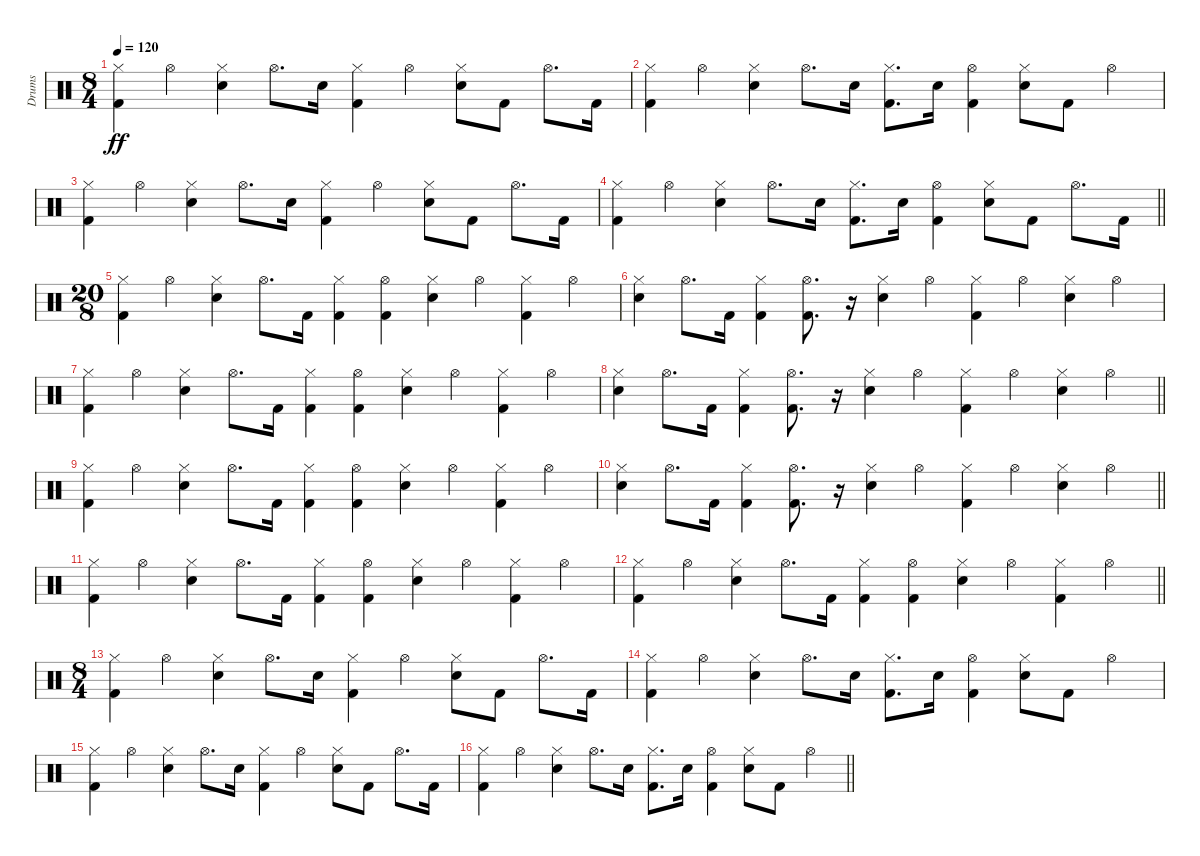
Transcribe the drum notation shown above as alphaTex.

\track ("Drums" "Drums") {instrument percussion}
\staff {score}
\articulation defaults
\ts (8 4)
\section ("" "")
\tempo 120
\clef neutral
\ks c
("Hi-Hat (closed)" "Kick (hit) 2").4{dy ff} "Hi-Hat (open)".4 ("Hi-Hat (closed)" "Electric Snare (hit)").4 "Hi-Hat (open)".8{d} "Electric Snare (hit)".16 ("Hi-Hat (closed)" "Kick (hit) 2").4 "Hi-Hat (open)".4 ("Hi-Hat (closed)" "Electric Snare (hit)").8 "Kick (hit) 2".8 "Hi-Hat (open)".8{d} "Kick (hit) 2".16 |
("Hi-Hat (closed)" "Kick (hit) 2").4 "Hi-Hat (open)".4 ("Hi-Hat (closed)" "Electric Snare (hit)").4 "Hi-Hat (open)".8{d} "Electric Snare (hit)".16 ("Hi-Hat (closed)" "Kick (hit) 2").8{d} "Electric Snare (hit)".16 ("Hi-Hat (open)" "Kick (hit) 2").4 ("Hi-Hat (closed)" "Electric Snare (hit)").8 "Kick (hit) 2".8 "Hi-Hat (open)".4 |
("Hi-Hat (closed)" "Kick (hit) 2").4 "Hi-Hat (open)".4 ("Hi-Hat (closed)" "Electric Snare (hit)").4 "Hi-Hat (open)".8{d} "Electric Snare (hit)".16 ("Hi-Hat (closed)" "Kick (hit) 2").4 "Hi-Hat (open)".4 ("Hi-Hat (closed)" "Electric Snare (hit)").8 "Kick (hit) 2".8 "Hi-Hat (open)".8{d} "Kick (hit) 2".16 |
\barLineRight lightlight
("Hi-Hat (closed)" "Kick (hit) 2").4 "Hi-Hat (open)".4 ("Hi-Hat (closed)" "Electric Snare (hit)").4 "Hi-Hat (open)".8{d} "Electric Snare (hit)".16 ("Hi-Hat (closed)" "Kick (hit) 2").8{d} "Electric Snare (hit)".16 ("Hi-Hat (open)" "Kick (hit) 2").4 ("Hi-Hat (closed)" "Electric Snare (hit)").8 "Kick (hit) 2".8 "Hi-Hat (open)".8{d} "Kick (hit) 2".16 |
\ts (20 8)
\section ("" "")
("Hi-Hat (closed)" "Kick (hit) 2").4 "Hi-Hat (open)".4 ("Hi-Hat (closed)" "Electric Snare (hit)").4 "Hi-Hat (open)".8{d} "Kick (hit) 2".16 ("Hi-Hat (closed)" "Kick (hit) 2").4 ("Hi-Hat (open)" "Kick (hit) 2").4 ("Hi-Hat (closed)" "Electric Snare (hit)").4 "Hi-Hat (open)".4 ("Hi-Hat (closed)" "Kick (hit) 2").4 "Hi-Hat (open)".4 |
("Hi-Hat (closed)" "Electric Snare (hit)").4 "Hi-Hat (open)".8{d} "Kick (hit) 2".16 ("Hi-Hat (closed)" "Kick (hit) 2").4 ("Hi-Hat (open)" "Kick (hit) 2").8{d} r.16 ("Hi-Hat (closed)" "Electric Snare (hit)").4 "Hi-Hat (open)".4 ("Hi-Hat (closed)" "Kick (hit) 2").4 "Hi-Hat (open)".4 ("Hi-Hat (closed)" "Electric Snare (hit)").4 "Hi-Hat (open)".4 |
("Hi-Hat (closed)" "Kick (hit) 2").4 "Hi-Hat (open)".4 ("Hi-Hat (closed)" "Electric Snare (hit)").4 "Hi-Hat (open)".8{d} "Kick (hit) 2".16 ("Hi-Hat (closed)" "Kick (hit) 2").4 ("Hi-Hat (open)" "Kick (hit) 2").4 ("Hi-Hat (closed)" "Electric Snare (hit)").4 "Hi-Hat (open)".4 ("Hi-Hat (closed)" "Kick (hit) 2").4 "Hi-Hat (open)".4 |
\barLineRight lightlight
("Hi-Hat (closed)" "Electric Snare (hit)").4 "Hi-Hat (open)".8{d} "Kick (hit) 2".16 ("Hi-Hat (closed)" "Kick (hit) 2").4 ("Hi-Hat (open)" "Kick (hit) 2").8{d} r.16 ("Hi-Hat (closed)" "Electric Snare (hit)").4 "Hi-Hat (open)".4 ("Hi-Hat (closed)" "Kick (hit) 2").4 "Hi-Hat (open)".4 ("Hi-Hat (closed)" "Electric Snare (hit)").4 "Hi-Hat (open)".4 |
\section ("" "")
("Hi-Hat (closed)" "Kick (hit) 2").4 "Hi-Hat (open)".4 ("Hi-Hat (closed)" "Electric Snare (hit)").4 "Hi-Hat (open)".8{d} "Kick (hit) 2".16 ("Hi-Hat (closed)" "Kick (hit) 2").4 ("Hi-Hat (open)" "Kick (hit) 2").4 ("Hi-Hat (closed)" "Electric Snare (hit)").4 "Hi-Hat (open)".4 ("Hi-Hat (closed)" "Kick (hit) 2").4 "Hi-Hat (open)".4 |
\barLineRight lightlight
("Hi-Hat (closed)" "Electric Snare (hit)").4 "Hi-Hat (open)".8{d} "Kick (hit) 2".16 ("Hi-Hat (closed)" "Kick (hit) 2").4 ("Hi-Hat (open)" "Kick (hit) 2").8{d} r.16 ("Hi-Hat (closed)" "Electric Snare (hit)").4 "Hi-Hat (open)".4 ("Hi-Hat (closed)" "Kick (hit) 2").4 "Hi-Hat (open)".4 ("Hi-Hat (closed)" "Electric Snare (hit)").4 "Hi-Hat (open)".4 |
\section ("" "")
("Hi-Hat (closed)" "Kick (hit) 2").4 "Hi-Hat (open)".4 ("Hi-Hat (closed)" "Electric Snare (hit)").4 "Hi-Hat (open)".8{d} "Kick (hit) 2".16 ("Hi-Hat (closed)" "Kick (hit) 2").4 ("Hi-Hat (open)" "Kick (hit) 2").4 ("Hi-Hat (closed)" "Electric Snare (hit)").4 "Hi-Hat (open)".4 ("Hi-Hat (closed)" "Kick (hit) 2").4 "Hi-Hat (open)".4 |
\barLineRight lightlight
("Hi-Hat (closed)" "Kick (hit) 2").4 "Hi-Hat (open)".4 ("Hi-Hat (closed)" "Electric Snare (hit)").4 "Hi-Hat (open)".8{d} "Kick (hit) 2".16 ("Hi-Hat (closed)" "Kick (hit) 2").4 ("Hi-Hat (open)" "Kick (hit) 2").4 ("Hi-Hat (closed)" "Electric Snare (hit)").4 "Hi-Hat (open)".4 ("Hi-Hat (closed)" "Kick (hit) 2").4 "Hi-Hat (open)".4 |
\ts (8 4)
\section ("" "")
("Hi-Hat (closed)" "Kick (hit) 2").4 "Hi-Hat (open)".4 ("Hi-Hat (closed)" "Electric Snare (hit)").4 "Hi-Hat (open)".8{d} "Electric Snare (hit)".16 ("Hi-Hat (closed)" "Kick (hit) 2").4 "Hi-Hat (open)".4 ("Hi-Hat (closed)" "Electric Snare (hit)").8 "Kick (hit) 2".8 "Hi-Hat (open)".8{d} "Kick (hit) 2".16 |
("Hi-Hat (closed)" "Kick (hit) 2").4 "Hi-Hat (open)".4 ("Hi-Hat (closed)" "Electric Snare (hit)").4 "Hi-Hat (open)".8{d} "Electric Snare (hit)".16 ("Hi-Hat (closed)" "Kick (hit) 2").8{d} "Electric Snare (hit)".16 ("Hi-Hat (open)" "Kick (hit) 2").4 ("Hi-Hat (closed)" "Electric Snare (hit)").8 "Kick (hit) 2".8 "Hi-Hat (open)".4 |
("Hi-Hat (closed)" "Kick (hit) 2").4 "Hi-Hat (open)".4 ("Hi-Hat (closed)" "Electric Snare (hit)").4 "Hi-Hat (open)".8{d} "Electric Snare (hit)".16 ("Hi-Hat (closed)" "Kick (hit) 2").4 "Hi-Hat (open)".4 ("Hi-Hat (closed)" "Electric Snare (hit)").8 "Kick (hit) 2".8 "Hi-Hat (open)".8{d} "Kick (hit) 2".16 |
\barLineRight lightlight
("Hi-Hat (closed)" "Kick (hit) 2").4 "Hi-Hat (open)".4 ("Hi-Hat (closed)" "Electric Snare (hit)").4 "Hi-Hat (open)".8{d} "Electric Snare (hit)".16 ("Hi-Hat (closed)" "Kick (hit) 2").8{d} "Electric Snare (hit)".16 ("Hi-Hat (open)" "Kick (hit) 2").4 ("Hi-Hat (closed)" "Electric Snare (hit)").8 "Kick (hit) 2".8 "Hi-Hat (open)".4
